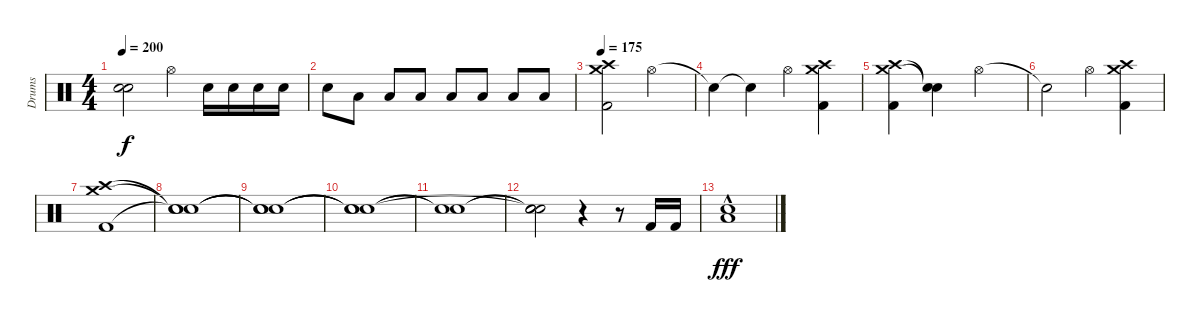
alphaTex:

\track ("Drums" "Drums") {instrument percussion}
\staff {score}
\articulation defaults
\ts (4 4)
\tempo 200
\clef neutral
\ks c
("Snare (hit)"{t} "Snare (hit)"{t}).2{dy f} "Hi-Hat (open)".4 "Electric Snare (hit)".16 "Electric Snare (hit)".16 "Electric Snare (hit)".16 "Electric Snare (hit)".16 |
"Electric Snare (hit)".8 "Low Tom (hit)".8 "Low Tom (hit)".8 "Low Tom (hit)".8 "Low Tom (hit)".8 "Low Tom (hit)".8 "Low Tom (hit)".8 "Low Tom (hit)".8 |
\tempo 175
("Crash medium (hit)" "Crash high (hit)" "Kick (hit) 2").2 "Hi-Hat (open)".2 |
"Snare (hit)"{t}.4 "Snare (hit)"{t}.4 "Hi-Hat (open)".4 ("Crash high (hit)" "Crash medium (hit)" "Kick (hit) 2").4 |
("Crash medium (hit)" "Crash high (hit)" "Kick (hit) 2").4 ("Snare (hit)"{t} "Snare (hit)"{t}).4 "Hi-Hat (open)".2 |
"Snare (hit)"{t}.2 "Hi-Hat (open)".4 ("Crash medium (hit)" "Crash high (hit)" "Kick (hit) 2").4 |
("Crash medium (hit)" "Crash high (hit)" "Kick (hit) 2").1 |
("Snare (hit)"{t} "Snare (hit)"{t} "Snare (hit)"{t}).1 |
("Snare (hit)"{t} "Snare (hit)"{t} "Snare (hit)"{t}).1 |
("Snare (hit)"{t} "Snare (hit)"{t} "Snare (hit)"{t}).1 |
("Snare (hit)"{t} "Snare (hit)"{t}).1 |
("Snare (hit)"{t} "Snare (hit)"{t} "Snare (hit)"{t}).2 r.4 r.8 "Kick (hit) 2".16 "Kick (hit) 2".16 |
("Electric Snare (hit)" "Low Floor Tom (hit)"{hac}).1{dy fff}
